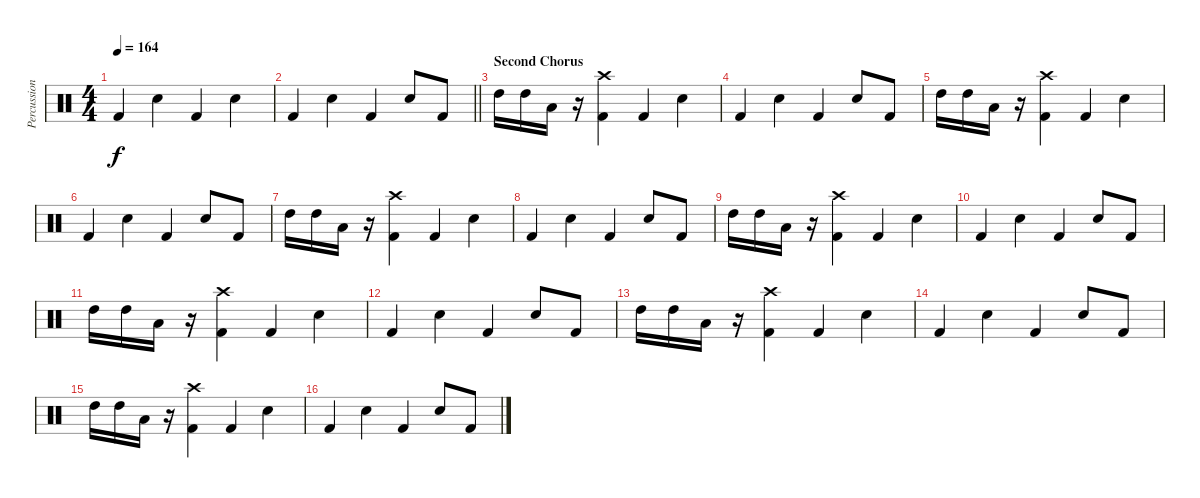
\track ("Percussions" "Percussion") {instrument percussion}
\staff {score}
\articulation defaults
\ts (4 4)
\tempo 164
\clef neutral
\ks c "Kick (hit) 2".4{dy f} "Electric Snare (hit)".4 "Kick (hit) 2".4 "Electric Snare (hit)".4
|
\barLineRight lightlight "Kick (hit) 2".4 "Electric Snare (hit)".4 "Kick (hit) 2".4 "Electric Snare (hit)".8 "Kick (hit) 2".8
|
\section ("" "Second Chorus")
"High Tom (hit)".16 "High Tom (hit)".16 "Low Tom (hit)".16 r.16 ("Crash high (hit)" "Kick (hit) 2").4 "Kick (hit) 2".4 "Electric Snare (hit)".4 |
"Kick (hit) 2".4 "Electric Snare (hit)".4 "Kick (hit) 2".4 "Electric Snare (hit)".8 "Kick (hit) 2".8 |
"High Tom (hit)".16 "High Tom (hit)".16 "Low Tom (hit)".16 r.16 ("Crash high (hit)" "Kick (hit) 2").4 "Kick (hit) 2".4 "Electric Snare (hit)".4 |
"Kick (hit) 2".4 "Electric Snare (hit)".4 "Kick (hit) 2".4 "Electric Snare (hit)".8 "Kick (hit) 2".8 |
"High Tom (hit)".16 "High Tom (hit)".16 "Low Tom (hit)".16 r.16 ("Crash high (hit)" "Kick (hit) 2").4 "Kick (hit) 2".4 "Electric Snare (hit)".4 |
"Kick (hit) 2".4 "Electric Snare (hit)".4 "Kick (hit) 2".4 "Electric Snare (hit)".8 "Kick (hit) 2".8 |
"High Tom (hit)".16 "High Tom (hit)".16 "Low Tom (hit)".16 r.16 ("Crash high (hit)" "Kick (hit) 2").4 "Kick (hit) 2".4 "Electric Snare (hit)".4 |
"Kick (hit) 2".4 "Electric Snare (hit)".4 "Kick (hit) 2".4 "Electric Snare (hit)".8 "Kick (hit) 2".8 |
"High Tom (hit)".16 "High Tom (hit)".16 "Low Tom (hit)".16 r.16 ("Crash high (hit)" "Kick (hit) 2").4 "Kick (hit) 2".4 "Electric Snare (hit)".4 |
"Kick (hit) 2".4 "Electric Snare (hit)".4 "Kick (hit) 2".4 "Electric Snare (hit)".8 "Kick (hit) 2".8 |
"High Tom (hit)".16 "High Tom (hit)".16 "Low Tom (hit)".16 r.16 ("Crash high (hit)" "Kick (hit) 2").4 "Kick (hit) 2".4 "Electric Snare (hit)".4 |
"Kick (hit) 2".4 "Electric Snare (hit)".4 "Kick (hit) 2".4 "Electric Snare (hit)".8 "Kick (hit) 2".8 |
"High Tom (hit)".16 "High Tom (hit)".16 "Low Tom (hit)".16 r.16 ("Crash high (hit)" "Kick (hit) 2").4 "Kick (hit) 2".4 "Electric Snare (hit)".4 |
"Kick (hit) 2".4 "Electric Snare (hit)".4 "Kick (hit) 2".4 "Electric Snare (hit)".8 "Kick (hit) 2".8
